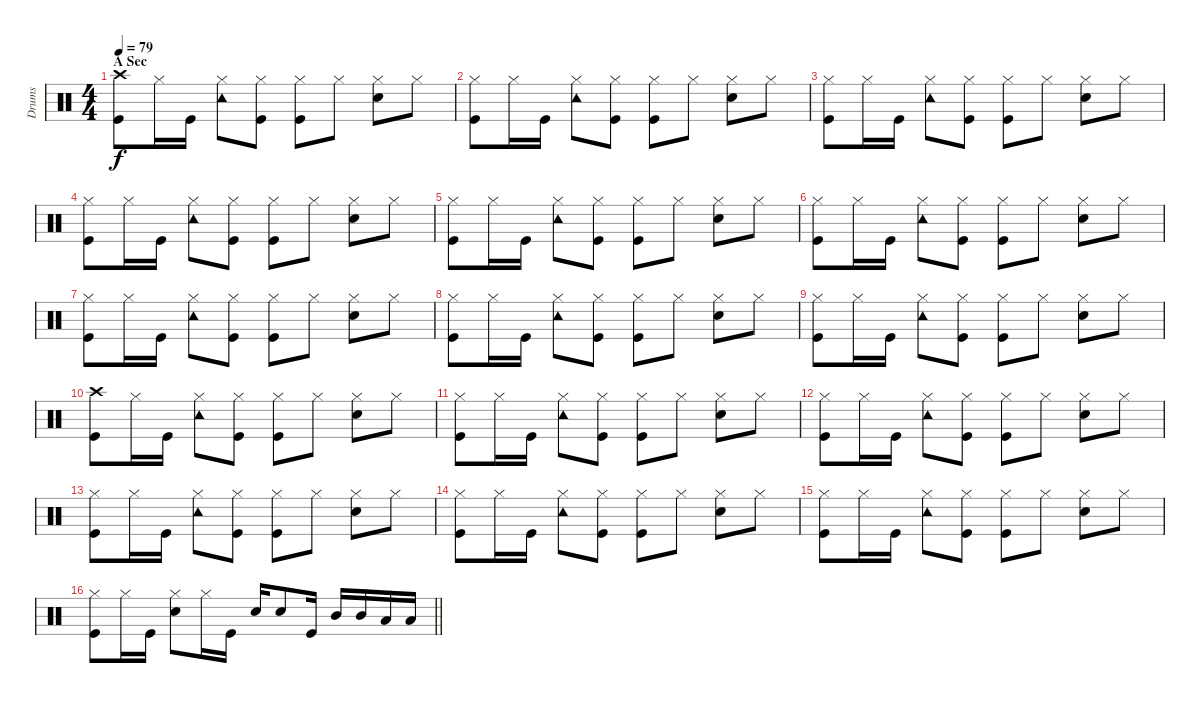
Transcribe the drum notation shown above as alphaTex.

\track ("Drums" "Drums") {instrument percussion}
\staff {score}
\articulation defaults
\ts (4 4)
\section ("" "A Sec")
\tempo 79
\clef neutral
\ks c
("Crash high (hit)" "Kick (hit)").8{dy f} "Hi-Hat (closed)".16 "Kick (hit)".16 ("Tambourine (hit)" "Hi-Hat (closed)").8 ("Hi-Hat (closed)" "Kick (hit)").8 ("Hi-Hat (closed)" "Kick (hit)").8 "Hi-Hat (closed)".8 ("Electric Snare (hit)" "Hi-Hat (closed)").8 "Hi-Hat (closed)".8 |
("Hi-Hat (closed)" "Kick (hit)").8 "Hi-Hat (closed)".16 "Kick (hit)".16 ("Tambourine (hit)" "Hi-Hat (closed)").8 ("Hi-Hat (closed)" "Kick (hit)").8 ("Hi-Hat (closed)" "Kick (hit)").8 "Hi-Hat (closed)".8 ("Electric Snare (hit)" "Hi-Hat (closed)").8 "Hi-Hat (closed)".8 |
("Hi-Hat (closed)" "Kick (hit)").8 "Hi-Hat (closed)".16 "Kick (hit)".16 ("Tambourine (hit)" "Hi-Hat (closed)").8 ("Hi-Hat (closed)" "Kick (hit)").8 ("Hi-Hat (closed)" "Kick (hit)").8 "Hi-Hat (closed)".8 ("Electric Snare (hit)" "Hi-Hat (closed)").8 "Hi-Hat (closed)".8 |
("Hi-Hat (closed)" "Kick (hit)").8 "Hi-Hat (closed)".16 "Kick (hit)".16 ("Tambourine (hit)" "Hi-Hat (closed)").8 ("Hi-Hat (closed)" "Kick (hit)").8 ("Hi-Hat (closed)" "Kick (hit)").8 "Hi-Hat (closed)".8 ("Electric Snare (hit)" "Hi-Hat (closed)").8 "Hi-Hat (closed)".8 |
("Hi-Hat (closed)" "Kick (hit)").8 "Hi-Hat (closed)".16 "Kick (hit)".16 ("Tambourine (hit)" "Hi-Hat (closed)").8 ("Hi-Hat (closed)" "Kick (hit)").8 ("Hi-Hat (closed)" "Kick (hit)").8 "Hi-Hat (closed)".8 ("Electric Snare (hit)" "Hi-Hat (closed)").8 "Hi-Hat (closed)".8 |
("Hi-Hat (closed)" "Kick (hit)").8 "Hi-Hat (closed)".16 "Kick (hit)".16 ("Tambourine (hit)" "Hi-Hat (closed)").8 ("Hi-Hat (closed)" "Kick (hit)").8 ("Hi-Hat (closed)" "Kick (hit)").8 "Hi-Hat (closed)".8 ("Electric Snare (hit)" "Hi-Hat (closed)").8 "Hi-Hat (closed)".8 |
("Hi-Hat (closed)" "Kick (hit)").8 "Hi-Hat (closed)".16 "Kick (hit)".16 ("Tambourine (hit)" "Hi-Hat (closed)").8 ("Hi-Hat (closed)" "Kick (hit)").8 ("Hi-Hat (closed)" "Kick (hit)").8 "Hi-Hat (closed)".8 ("Electric Snare (hit)" "Hi-Hat (closed)").8 "Hi-Hat (closed)".8 |
("Hi-Hat (closed)" "Kick (hit)").8 "Hi-Hat (closed)".16 "Kick (hit)".16 ("Tambourine (hit)" "Hi-Hat (closed)").8 ("Hi-Hat (closed)" "Kick (hit)").8 ("Hi-Hat (closed)" "Kick (hit)").8 "Hi-Hat (closed)".8 ("Electric Snare (hit)" "Hi-Hat (closed)").8 "Hi-Hat (closed)".8 |
("Hi-Hat (closed)" "Kick (hit)").8 "Hi-Hat (closed)".16 "Kick (hit)".16{txt ""} ("Tambourine (hit)" "Hi-Hat (closed)").8 ("Hi-Hat (closed)" "Kick (hit)").8 ("Hi-Hat (closed)" "Kick (hit)").8 "Hi-Hat (closed)".8 ("Electric Snare (hit)" "Hi-Hat (closed)").8 "Hi-Hat (closed)".8 |
("Crash high (hit)" "Kick (hit)").8 "Hi-Hat (closed)".16 "Kick (hit)".16 ("Tambourine (hit)" "Hi-Hat (closed)").8 ("Hi-Hat (closed)" "Kick (hit)").8 ("Hi-Hat (closed)" "Kick (hit)").8 "Hi-Hat (closed)".8 ("Electric Snare (hit)" "Hi-Hat (closed)").8 "Hi-Hat (closed)".8 |
("Hi-Hat (closed)" "Kick (hit)").8 "Hi-Hat (closed)".16 "Kick (hit)".16 ("Tambourine (hit)" "Hi-Hat (closed)").8 ("Hi-Hat (closed)" "Kick (hit)").8 ("Hi-Hat (closed)" "Kick (hit)").8 "Hi-Hat (closed)".8 ("Electric Snare (hit)" "Hi-Hat (closed)").8 "Hi-Hat (closed)".8 |
("Hi-Hat (closed)" "Kick (hit)").8 "Hi-Hat (closed)".16 "Kick (hit)".16 ("Tambourine (hit)" "Hi-Hat (closed)").8 ("Hi-Hat (closed)" "Kick (hit)").8 ("Hi-Hat (closed)" "Kick (hit)").8 "Hi-Hat (closed)".8 ("Electric Snare (hit)" "Hi-Hat (closed)").8 "Hi-Hat (closed)".8 |
("Hi-Hat (closed)" "Kick (hit)").8 "Hi-Hat (closed)".16 "Kick (hit)".16 ("Tambourine (hit)" "Hi-Hat (closed)").8 ("Hi-Hat (closed)" "Kick (hit)").8 ("Hi-Hat (closed)" "Kick (hit)").8 "Hi-Hat (closed)".8 ("Electric Snare (hit)" "Hi-Hat (closed)").8 "Hi-Hat (closed)".8 |
("Hi-Hat (closed)" "Kick (hit)").8 "Hi-Hat (closed)".16 "Kick (hit)".16 ("Tambourine (hit)" "Hi-Hat (closed)").8 ("Hi-Hat (closed)" "Kick (hit)").8 ("Hi-Hat (closed)" "Kick (hit)").8 "Hi-Hat (closed)".8 ("Electric Snare (hit)" "Hi-Hat (closed)").8 "Hi-Hat (closed)".8 |
("Hi-Hat (closed)" "Kick (hit)").8 "Hi-Hat (closed)".16 "Kick (hit)".16 ("Tambourine (hit)" "Hi-Hat (closed)").8 ("Hi-Hat (closed)" "Kick (hit)").8 ("Hi-Hat (closed)" "Kick (hit)").8 "Hi-Hat (closed)".8 ("Electric Snare (hit)" "Hi-Hat (closed)").8 "Hi-Hat (closed)".8 |
\barLineRight lightlight
("Hi-Hat (closed)" "Kick (hit)").8 "Hi-Hat (closed)".16 "Kick (hit)".16 ("Electric Snare (hit)" "Hi-Hat (closed)").8 "Hi-Hat (closed)".16 "Kick (hit)".16 "Electric Snare (hit)".16 "Electric Snare (hit)".8 "Kick (hit)".16 "Mid Tom (hit)".16 "Mid Tom (hit)".16 "Low Tom (hit)".16 "Low Tom (hit)".16
